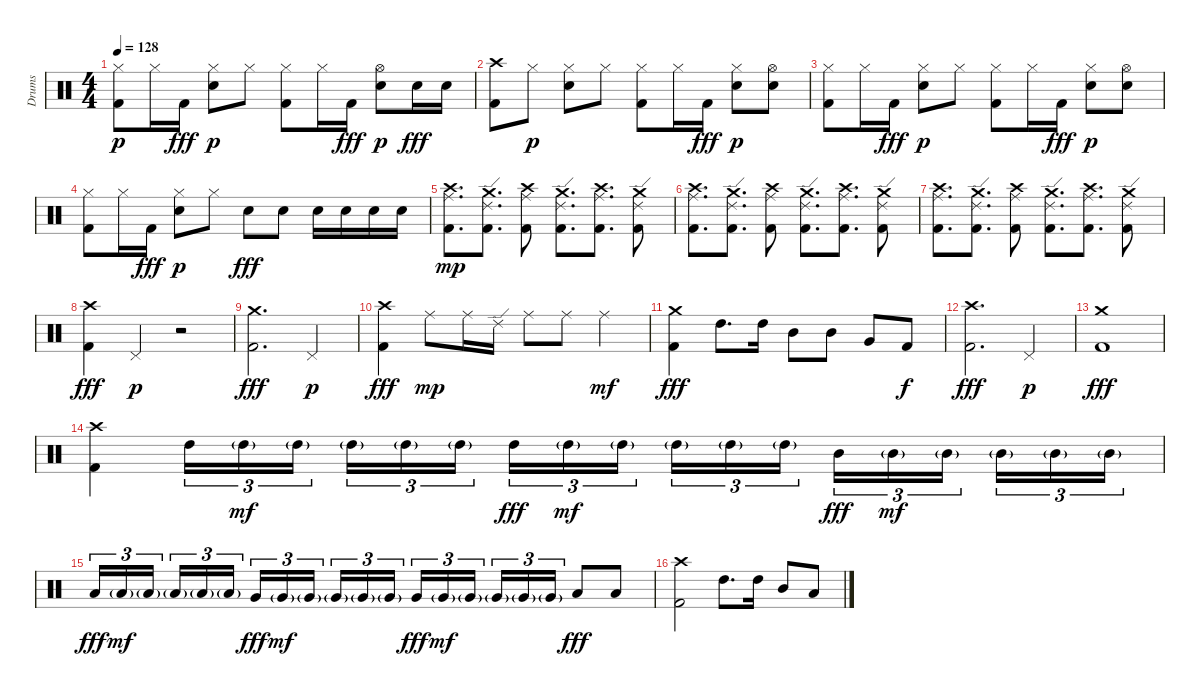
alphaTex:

\track ("Drums" "Drums") {instrument percussion}
\staff {score}
\articulation defaults
\ts (4 4)
\tempo 128
\clef neutral
\ks c
("Kick (hit) 2" "Hi-Hat (closed)").8{dy p} "Hi-Hat (closed)".16 "Kick (hit) 2".16{dy fff} ("Electric Snare (hit)" "Hi-Hat (closed)").8{dy p} "Hi-Hat (closed)".8 ("Kick (hit) 2" "Hi-Hat (closed)").8 "Hi-Hat (closed)".16 "Kick (hit) 2".16{dy fff} ("Electric Snare (hit)" "Hi-Hat (open)").8{dy p} "Electric Snare (hit)".16{dy fff} "Electric Snare (hit)".16 |
("Kick (hit) 2" "Crash high (hit)").8 "Hi-Hat (closed)".8{dy p} ("Electric Snare (hit)" "Hi-Hat (closed)").8 "Hi-Hat (closed)".8 ("Kick (hit) 2" "Hi-Hat (closed)").8 "Hi-Hat (closed)".16 "Kick (hit) 2".16{dy fff} ("Electric Snare (hit)" "Hi-Hat (closed)").8{dy p} ("Electric Snare (hit)" "Hi-Hat (open)").8 |
("Kick (hit) 2" "Hi-Hat (closed)").8 "Hi-Hat (closed)".16 "Kick (hit) 2".16{dy fff} ("Electric Snare (hit)" "Hi-Hat (closed)").8{dy p} "Hi-Hat (closed)".8 ("Kick (hit) 2" "Hi-Hat (closed)").8 "Hi-Hat (closed)".16 "Kick (hit) 2".16{dy fff} ("Electric Snare (hit)" "Hi-Hat (closed)").8{dy p} ("Electric Snare (hit)" "Hi-Hat (open)").8 |
("Kick (hit) 2" "Hi-Hat (closed)").8 "Hi-Hat (closed)".16 "Kick (hit) 2".16{dy fff} ("Electric Snare (hit)" "Hi-Hat (closed)").8{dy p} "Hi-Hat (closed)".8 "Electric Snare (hit)".8{dy fff} "Electric Snare (hit)".8 "Electric Snare (hit)".16 "Electric Snare (hit)".16 "Electric Snare (hit)".16 "Electric Snare (hit)".16 |
("Kick (hit) 2" "Ride (middle)" "Crash high (hit)").8{d dy mp} ("Kick (hit) 2" "Ride (edge) 2" "Crash medium (hit)").8{d} ("Kick (hit) 2" "Ride (middle)" "Crash high (hit)").8 ("Kick (hit) 2" "Ride (edge) 2" "Crash medium (hit)").8{d} ("Kick (hit) 2" "Ride (middle)" "Crash high (hit)").8{d} ("Kick (hit) 2" "Ride (edge) 2" "Crash medium (hit)").8 |
("Kick (hit) 2" "Ride (middle)" "Crash high (hit)").8{d} ("Kick (hit) 2" "Ride (edge) 2" "Crash medium (hit)").8{d} ("Kick (hit) 2" "Ride (middle)" "Crash high (hit)").8 ("Kick (hit) 2" "Ride (edge) 2" "Crash medium (hit)").8{d} ("Kick (hit) 2" "Ride (middle)" "Crash high (hit)").8{d} ("Kick (hit) 2" "Ride (edge) 2" "Crash medium (hit)").8 |
("Kick (hit) 2" "Ride (middle)" "Crash high (hit)").8{d} ("Kick (hit) 2" "Ride (edge) 2" "Crash medium (hit)").8{d} ("Kick (hit) 2" "Ride (middle)" "Crash high (hit)").8 ("Kick (hit) 2" "Ride (edge) 2" "Crash medium (hit)").8{d} ("Kick (hit) 2" "Ride (middle)" "Crash high (hit)").8{d} ("Kick (hit) 2" "Ride (edge) 2" "Crash medium (hit)").8 |
("Kick (hit) 2" "Crash high (hit)").4{dy fff} "Pedal Hi-Hat (hit)".4{dy p} r.2 |
("Kick (hit) 2" "Crash medium (hit)").2{d dy fff} "Pedal Hi-Hat (hit)".4{dy p} |
("Kick (hit) 2" "Crash high (hit)").4{dy fff} "Ride (middle)".8{dy mp} "Ride (middle)".16 "Ride (edge) 2".16 "Ride (middle)".8 "Ride (middle)".8 "Ride (middle)".4{dy mf} |
("Kick (hit) 2" "Crash medium (hit)").4{dy fff} "High Tom (hit)".8{d} "High Tom (hit)".16 "Mid Tom (hit)".8 "Mid Tom (hit)".8 "Very Low Tom (hit)".8 "Kick (hit) 2".8{dy f} |
("Kick (hit) 2" "Crash high (hit)").2{d dy fff} "Pedal Hi-Hat (hit)".4{dy p} |
("Kick (hit) 2" "Crash medium (hit)").1{dy fff} |
("Kick (hit) 2" "Crash high (hit)").4 "High Tom (hit)".16{tu (3 2)} "High Tom (hit)"{g}.16{tu (3 2) dy mf} "High Tom (hit)"{g}.16{tu (3 2) beam splitsecondary} "High Tom (hit)"{g}.16{tu (3 2)} "High Tom (hit)"{g}.16{tu (3 2)} "High Tom (hit)"{g}.16{tu (3 2)} "High Tom (hit)".16{tu (3 2) dy fff} "High Tom (hit)"{g}.16{tu (3 2) dy mf} "High Tom (hit)"{g}.16{tu (3 2) beam splitsecondary} "High Tom (hit)"{g}.16{tu (3 2)} "High Tom (hit)"{g}.16{tu (3 2)} "High Tom (hit)"{g}.16{tu (3 2)} "Mid Tom (hit)".16{tu (3 2) dy fff} "Mid Tom (hit)"{g}.16{tu (3 2) dy mf} "Mid Tom (hit)"{g}.16{tu (3 2) beam splitsecondary} "Mid Tom (hit)"{g}.16{tu (3 2)} "Mid Tom (hit)"{g}.16{tu (3 2)} "Mid Tom (hit)"{g}.16{tu (3 2)} |
"Low Tom (hit)".16{tu (3 2) dy fff} "Low Tom (hit)"{g}.16{tu (3 2) dy mf} "Low Tom (hit)"{g}.16{tu (3 2) beam splitsecondary} "Low Tom (hit)"{g}.16{tu (3 2)} "Low Tom (hit)"{g}.16{tu (3 2)} "Low Tom (hit)"{g}.16{tu (3 2)} "Very Low Tom (hit)".16{tu (3 2) dy fff} "Very Low Tom (hit)"{g}.16{tu (3 2) dy mf} "Very Low Tom (hit)"{g}.16{tu (3 2) beam splitsecondary} "Very Low Tom (hit)"{g}.16{tu (3 2)} "Very Low Tom (hit)"{g}.16{tu (3 2)} "Very Low Tom (hit)"{g}.16{tu (3 2)} "Very Low Tom (hit)".16{tu (3 2) dy fff} "Very Low Tom (hit)"{g}.16{tu (3 2) dy mf} "Very Low Tom (hit)"{g}.16{tu (3 2) beam splitsecondary} "Very Low Tom (hit)"{g}.16{tu (3 2)} "Very Low Tom (hit)"{g}.16{tu (3 2)} "Very Low Tom (hit)"{g}.16{tu (3 2)} "Low Floor Tom (hit)".8{dy fff} "Low Floor Tom (hit)".8 |
("Kick (hit) 2" "Crash high (hit)").2 "High Tom (hit)".8{d} "High Tom (hit)".16 "Mid Tom (hit)".8 "Low Tom (hit)".8
